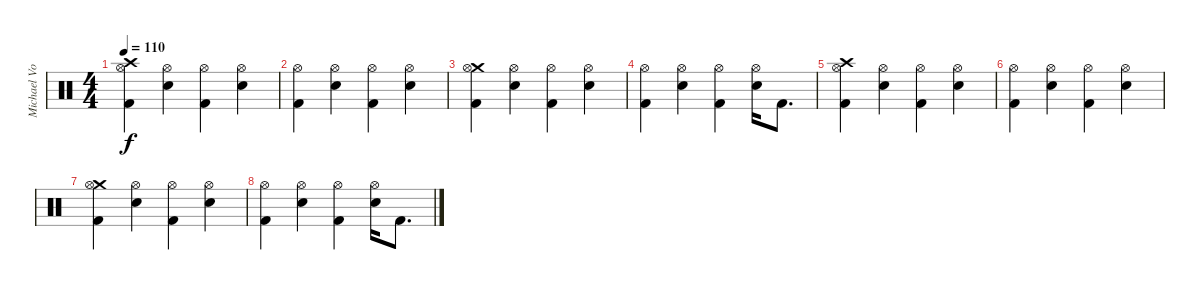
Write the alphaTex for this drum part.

\track ("Michael Von Knorring" "Michael Vo") {instrument percussion}
\staff {score}
\articulation defaults
\ts (4 4)
\tempo 110
\clef neutral
\ks c
("Crash high (hit)" "Hi-Hat (open)" "Kick (hit) 2").4{dy f} ("Hi-Hat (open)" "Snare (hit) 2").4 ("Hi-Hat (open)" "Kick (hit) 2").4 ("Hi-Hat (open)" "Snare (hit) 2").4 |
("Hi-Hat (open)" "Kick (hit) 2").4 ("Hi-Hat (open)" "Snare (hit) 2").4 ("Hi-Hat (open)" "Kick (hit) 2").4 ("Hi-Hat (open)" "Snare (hit) 2").4 |
("Crash medium (hit)" "Hi-Hat (open)" "Kick (hit) 2").4 ("Hi-Hat (open)" "Snare (hit) 2").4 ("Hi-Hat (open)" "Kick (hit) 2").4 ("Hi-Hat (open)" "Snare (hit) 2").4 |
("Hi-Hat (open)" "Kick (hit) 2").4 ("Hi-Hat (open)" "Snare (hit) 2").4 ("Hi-Hat (open)" "Kick (hit) 2").4 ("Hi-Hat (open)" "Snare (hit) 2").16 "Kick (hit) 2".8{d} |
("Crash high (hit)" "Hi-Hat (open)" "Kick (hit) 2").4 ("Hi-Hat (open)" "Snare (hit) 2").4 ("Hi-Hat (open)" "Kick (hit) 2").4 ("Hi-Hat (open)" "Snare (hit) 2").4 |
("Hi-Hat (open)" "Kick (hit) 2").4 ("Hi-Hat (open)" "Snare (hit) 2").4 ("Hi-Hat (open)" "Kick (hit) 2").4 ("Hi-Hat (open)" "Snare (hit) 2").4 |
("Crash medium (hit)" "Hi-Hat (open)" "Kick (hit) 2").4 ("Hi-Hat (open)" "Snare (hit) 2").4 ("Hi-Hat (open)" "Kick (hit) 2").4 ("Hi-Hat (open)" "Snare (hit) 2").4 |
("Hi-Hat (open)" "Kick (hit) 2").4 ("Hi-Hat (open)" "Snare (hit) 2").4 ("Hi-Hat (open)" "Kick (hit) 2").4 ("Hi-Hat (open)" "Snare (hit) 2").16 "Kick (hit) 2".8{d}
